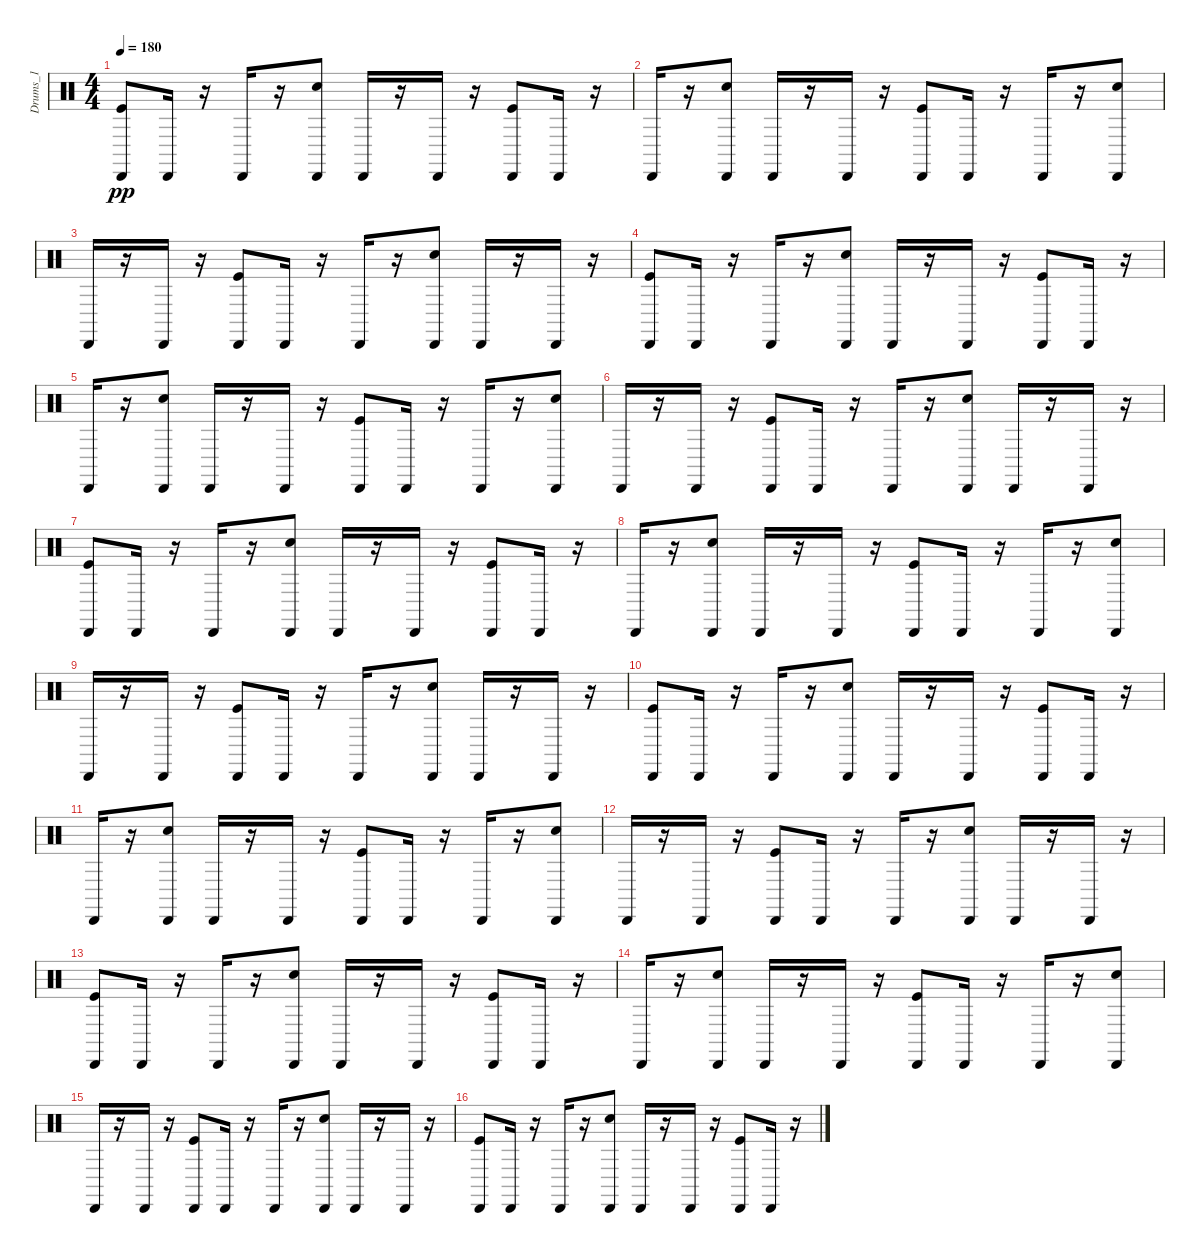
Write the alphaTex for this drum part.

\track ("Drums_1" "Drums_1") {instrument percussion}
\staff {score}
\articulation defaults
\ts (4 4)
\tempo 180
\clef neutral
\ks c
("Kick (hit)" "Cabasa (hit)").8{dy pp} "Cabasa (hit)".16 r.16 "Cabasa (hit)".16 r.16 ("Snare (hit) 2" "Cabasa (hit)").8 "Cabasa (hit)".16 r.16 "Cabasa (hit)".16 r.16 ("Kick (hit)" "Cabasa (hit)").8 "Cabasa (hit)".16 r.16 |
"Cabasa (hit)".16 r.16 ("Snare (hit) 2" "Cabasa (hit)").8 "Cabasa (hit)".16 r.16 "Cabasa (hit)".16 r.16 ("Kick (hit)" "Cabasa (hit)").8 "Cabasa (hit)".16 r.16 "Cabasa (hit)".16 r.16 ("Snare (hit) 2" "Cabasa (hit)").8 |
"Cabasa (hit)".16 r.16 "Cabasa (hit)".16 r.16 ("Kick (hit)" "Cabasa (hit)").8 "Cabasa (hit)".16 r.16 "Cabasa (hit)".16 r.16 ("Snare (hit) 2" "Cabasa (hit)").8 "Cabasa (hit)".16 r.16 "Cabasa (hit)".16 r.16 |
("Kick (hit)" "Cabasa (hit)").8 "Cabasa (hit)".16 r.16 "Cabasa (hit)".16 r.16 ("Snare (hit) 2" "Cabasa (hit)").8 "Cabasa (hit)".16 r.16 "Cabasa (hit)".16 r.16 ("Kick (hit)" "Cabasa (hit)").8 "Cabasa (hit)".16 r.16 |
"Cabasa (hit)".16 r.16 ("Snare (hit) 2" "Cabasa (hit)").8 "Cabasa (hit)".16 r.16 "Cabasa (hit)".16 r.16 ("Kick (hit)" "Cabasa (hit)").8 "Cabasa (hit)".16 r.16 "Cabasa (hit)".16 r.16 ("Snare (hit) 2" "Cabasa (hit)").8 |
"Cabasa (hit)".16 r.16 "Cabasa (hit)".16 r.16 ("Kick (hit)" "Cabasa (hit)").8 "Cabasa (hit)".16 r.16 "Cabasa (hit)".16 r.16 ("Snare (hit) 2" "Cabasa (hit)").8 "Cabasa (hit)".16 r.16 "Cabasa (hit)".16 r.16 |
("Kick (hit)" "Cabasa (hit)").8 "Cabasa (hit)".16 r.16 "Cabasa (hit)".16 r.16 ("Snare (hit) 2" "Cabasa (hit)").8 "Cabasa (hit)".16 r.16 "Cabasa (hit)".16 r.16 ("Kick (hit)" "Cabasa (hit)").8 "Cabasa (hit)".16 r.16 |
"Cabasa (hit)".16 r.16 ("Snare (hit) 2" "Cabasa (hit)").8 "Cabasa (hit)".16 r.16 "Cabasa (hit)".16 r.16 ("Kick (hit)" "Cabasa (hit)").8 "Cabasa (hit)".16 r.16 "Cabasa (hit)".16 r.16 ("Snare (hit) 2" "Cabasa (hit)").8 |
"Cabasa (hit)".16 r.16 "Cabasa (hit)".16 r.16 ("Kick (hit)" "Cabasa (hit)").8 "Cabasa (hit)".16 r.16 "Cabasa (hit)".16 r.16 ("Snare (hit) 2" "Cabasa (hit)").8 "Cabasa (hit)".16 r.16 "Cabasa (hit)".16 r.16 |
("Kick (hit)" "Cabasa (hit)").8 "Cabasa (hit)".16 r.16 "Cabasa (hit)".16 r.16 ("Snare (hit) 2" "Cabasa (hit)").8 "Cabasa (hit)".16 r.16 "Cabasa (hit)".16 r.16 ("Kick (hit)" "Cabasa (hit)").8 "Cabasa (hit)".16 r.16 |
"Cabasa (hit)".16 r.16 ("Snare (hit) 2" "Cabasa (hit)").8 "Cabasa (hit)".16 r.16 "Cabasa (hit)".16 r.16 ("Kick (hit)" "Cabasa (hit)").8 "Cabasa (hit)".16 r.16 "Cabasa (hit)".16 r.16 ("Snare (hit) 2" "Cabasa (hit)").8 |
"Cabasa (hit)".16 r.16 "Cabasa (hit)".16 r.16 ("Kick (hit)" "Cabasa (hit)").8 "Cabasa (hit)".16 r.16 "Cabasa (hit)".16 r.16 ("Snare (hit) 2" "Cabasa (hit)").8 "Cabasa (hit)".16 r.16 "Cabasa (hit)".16 r.16 |
("Kick (hit)" "Cabasa (hit)").8 "Cabasa (hit)".16 r.16 "Cabasa (hit)".16 r.16 ("Snare (hit) 2" "Cabasa (hit)").8 "Cabasa (hit)".16 r.16 "Cabasa (hit)".16 r.16 ("Kick (hit)" "Cabasa (hit)").8 "Cabasa (hit)".16 r.16 |
"Cabasa (hit)".16 r.16 ("Snare (hit) 2" "Cabasa (hit)").8 "Cabasa (hit)".16 r.16 "Cabasa (hit)".16 r.16 ("Kick (hit)" "Cabasa (hit)").8 "Cabasa (hit)".16 r.16 "Cabasa (hit)".16 r.16 ("Snare (hit) 2" "Cabasa (hit)").8 |
"Cabasa (hit)".16 r.16 "Cabasa (hit)".16 r.16 ("Kick (hit)" "Cabasa (hit)").8 "Cabasa (hit)".16 r.16 "Cabasa (hit)".16 r.16 ("Snare (hit) 2" "Cabasa (hit)").8 "Cabasa (hit)".16 r.16 "Cabasa (hit)".16 r.16 |
("Kick (hit)" "Cabasa (hit)").8 "Cabasa (hit)".16 r.16 "Cabasa (hit)".16 r.16 ("Snare (hit) 2" "Cabasa (hit)").8 "Cabasa (hit)".16 r.16 "Cabasa (hit)".16 r.16 ("Kick (hit)" "Cabasa (hit)").8 "Cabasa (hit)".16 r.16
